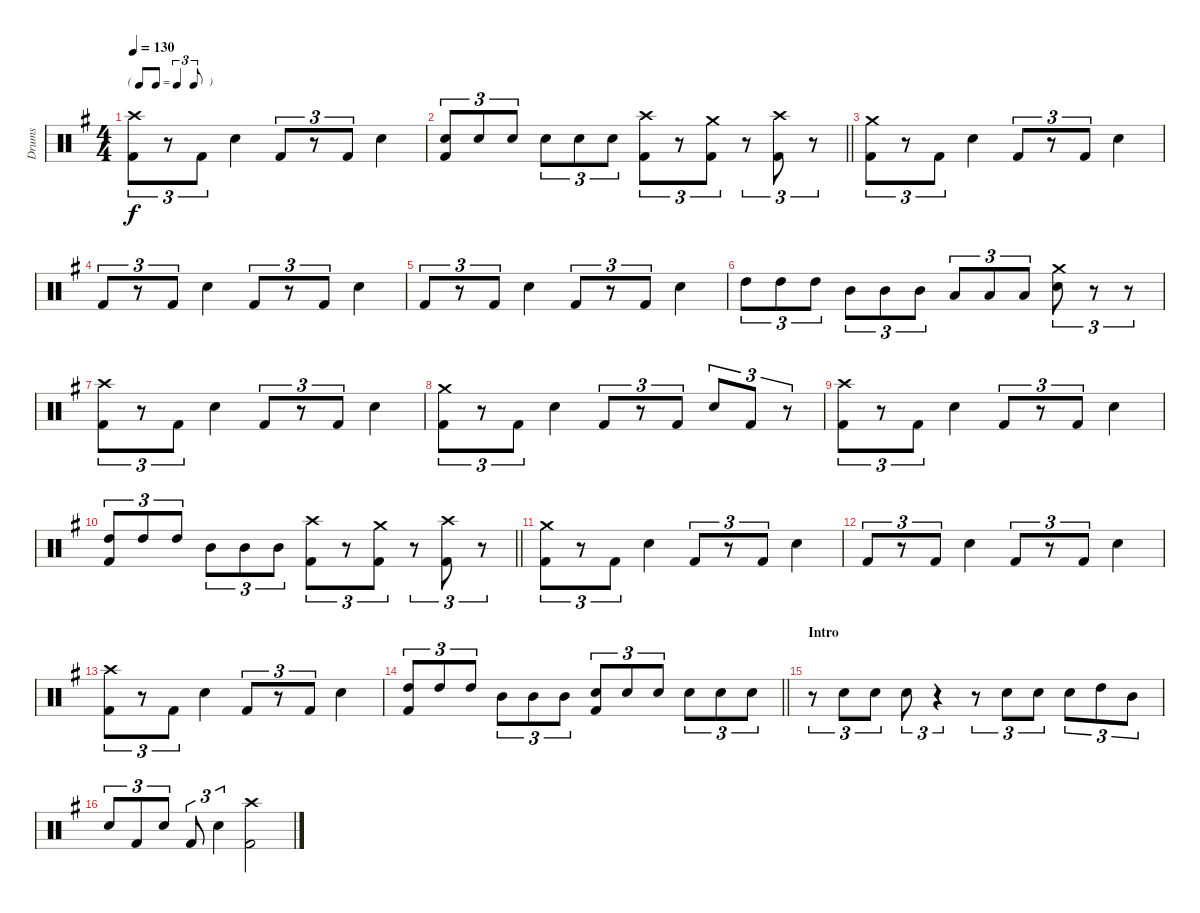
\track ("Drums" "Drums") {instrument percussion}
\staff {score}
\articulation defaults
\ts (4 4)
\tf triplet8th
\tempo 130
\clef neutral
\ks eminor
("Kick (hit) 2" "Crash high (hit)").8{tu (3 2) dy f} r.8{tu (3 2)} "Kick (hit) 2".8{tu (3 2)} "Snare (hit) 2".4 "Kick (hit) 2".8{tu (3 2)} r.8{tu (3 2)} "Kick (hit) 2".8{tu (3 2)} "Snare (hit) 2".4 |
\barLineRight lightlight
("Kick (hit) 2" "Snare (hit) 2").8{tu (3 2)} "Snare (hit) 2".8{tu (3 2)} "Snare (hit) 2".8{tu (3 2)} "Snare (hit) 2".8{tu (3 2)} "Snare (hit) 2".8{tu (3 2)} "Snare (hit) 2".8{tu (3 2)} ("Kick (hit) 2" "Crash high (hit)").8{tu (3 2)} r.8{tu (3 2)} ("Kick (hit) 2" "Crash medium (hit)").8{tu (3 2)} r.8{tu (3 2)} ("Kick (hit) 2" "Crash high (hit)").8{tu (3 2)} r.8{tu (3 2)} |
("Kick (hit) 2" "Crash medium (hit)").8{tu (3 2)} r.8{tu (3 2)} "Kick (hit) 2".8{tu (3 2)} "Snare (hit) 2".4 "Kick (hit) 2".8{tu (3 2)} r.8{tu (3 2)} "Kick (hit) 2".8{tu (3 2)} "Snare (hit) 2".4 |
"Kick (hit) 2".8{tu (3 2)} r.8{tu (3 2)} "Kick (hit) 2".8{tu (3 2)} "Snare (hit) 2".4 "Kick (hit) 2".8{tu (3 2)} r.8{tu (3 2)} "Kick (hit) 2".8{tu (3 2)} "Snare (hit) 2".4 |
"Kick (hit) 2".8{tu (3 2)} r.8{tu (3 2)} "Kick (hit) 2".8{tu (3 2)} "Snare (hit) 2".4 "Kick (hit) 2".8{tu (3 2)} r.8{tu (3 2)} "Kick (hit) 2".8{tu (3 2)} "Snare (hit) 2".4 |
"High Tom (hit)".8{tu (3 2)} "High Tom (hit)".8{tu (3 2)} "High Tom (hit)".8{tu (3 2)} "Mid Tom (hit)".8{tu (3 2)} "Mid Tom (hit)".8{tu (3 2)} "Mid Tom (hit)".8{tu (3 2)} "Low Tom (hit)".8{tu (3 2)} "Low Tom (hit)".8{tu (3 2)} "Low Tom (hit)".8{tu (3 2)} ("Snare (hit) 2" "Crash medium (hit)").8{tu (3 2)} r.8{tu (3 2)} r.8{tu (3 2)} |
("Kick (hit) 2" "Crash high (hit)").8{tu (3 2)} r.8{tu (3 2)} "Kick (hit) 2".8{tu (3 2)} "Snare (hit) 2".4 "Kick (hit) 2".8{tu (3 2)} r.8{tu (3 2)} "Kick (hit) 2".8{tu (3 2)} "Snare (hit) 2".4 |
("Kick (hit) 2" "Crash medium (hit)").8{tu (3 2)} r.8{tu (3 2)} "Kick (hit) 2".8{tu (3 2)} "Snare (hit) 2".4 "Kick (hit) 2".8{tu (3 2)} r.8{tu (3 2)} "Kick (hit) 2".8{tu (3 2)} "Snare (hit) 2".8{tu (3 2)} "Kick (hit) 2".8{tu (3 2)} r.8{tu (3 2)} |
("Kick (hit) 2" "Crash high (hit)").8{tu (3 2)} r.8{tu (3 2)} "Kick (hit) 2".8{tu (3 2)} "Snare (hit) 2".4 "Kick (hit) 2".8{tu (3 2)} r.8{tu (3 2)} "Kick (hit) 2".8{tu (3 2)} "Snare (hit) 2".4 |
\barLineRight lightlight
("Kick (hit) 2" "High Tom (hit)").8{tu (3 2)} "High Tom (hit)".8{tu (3 2)} "High Tom (hit)".8{tu (3 2)} "Mid Tom (hit)".8{tu (3 2)} "Mid Tom (hit)".8{tu (3 2)} "Mid Tom (hit)".8{tu (3 2)} ("Kick (hit) 2" "Crash high (hit)").8{tu (3 2)} r.8{tu (3 2)} ("Kick (hit) 2" "Crash medium (hit)").8{tu (3 2)} r.8{tu (3 2)} ("Kick (hit) 2" "Crash high (hit)").8{tu (3 2)} r.8{tu (3 2)} |
("Kick (hit) 2" "Crash medium (hit)").8{tu (3 2)} r.8{tu (3 2)} "Kick (hit) 2".8{tu (3 2)} "Snare (hit) 2".4 "Kick (hit) 2".8{tu (3 2)} r.8{tu (3 2)} "Kick (hit) 2".8{tu (3 2)} "Snare (hit) 2".4 |
"Kick (hit) 2".8{tu (3 2)} r.8{tu (3 2)} "Kick (hit) 2".8{tu (3 2)} "Snare (hit) 2".4 "Kick (hit) 2".8{tu (3 2)} r.8{tu (3 2)} "Kick (hit) 2".8{tu (3 2)} "Snare (hit) 2".4 |
("Kick (hit) 2" "Crash high (hit)").8{tu (3 2)} r.8{tu (3 2)} "Kick (hit) 2".8{tu (3 2)} "Snare (hit) 2".4 "Kick (hit) 2".8{tu (3 2)} r.8{tu (3 2)} "Kick (hit) 2".8{tu (3 2)} "Snare (hit) 2".4 |
\barLineRight lightlight
("Kick (hit) 2" "High Tom (hit)").8{tu (3 2)} "High Tom (hit)".8{tu (3 2)} "High Tom (hit)".8{tu (3 2)} "Mid Tom (hit)".8{tu (3 2)} "Mid Tom (hit)".8{tu (3 2)} "Mid Tom (hit)".8{tu (3 2)} ("Kick (hit) 2" "Snare (hit) 2").8{tu (3 2)} "Snare (hit) 2".8{tu (3 2)} "Snare (hit) 2".8{tu (3 2)} "Snare (hit) 2".8{tu (3 2)} "Snare (hit) 2".8{tu (3 2)} "Snare (hit) 2".8{tu (3 2)} |
\section ("" "Intro")
r.8{tu (3 2)} "Snare (hit) 2".8{tu (3 2)} "Snare (hit) 2".8{tu (3 2)} "Snare (hit) 2".8{tu (3 2)} r.4{tu (3 2)} r.8{tu (3 2)} "Snare (hit) 2".8{tu (3 2)} "Snare (hit) 2".8{tu (3 2)} "Snare (hit) 2".8{tu (3 2)} "High Tom (hit)".8{tu (3 2)} "Mid Tom (hit)".8{tu (3 2)} |
"Snare (hit) 2".8{tu (3 2)} "Kick (hit) 2".8{tu (3 2)} "Snare (hit) 2".8{tu (3 2)} "Kick (hit) 2".8{tu (3 2)} "Snare (hit) 2".4{tu (3 2)} ("Kick (hit) 2" "Crash high (hit)").2
